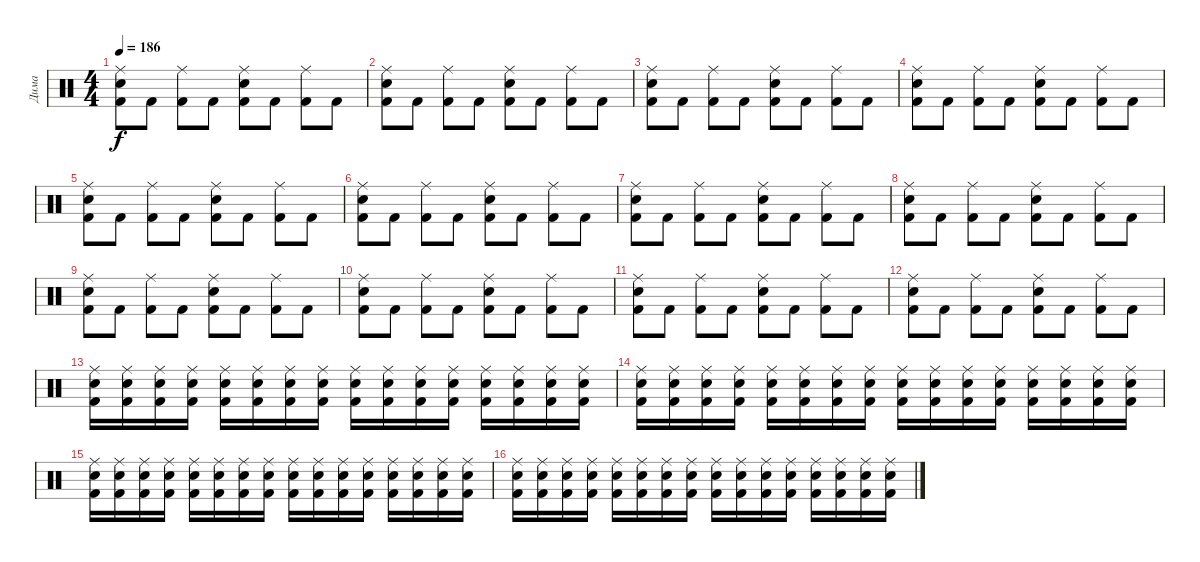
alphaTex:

\track ("Дима" "Дима") {instrument percussion}
\staff {score}
\articulation defaults
\ts (4 4)
\tempo 186
\clef neutral
\ks c
("Ride (middle)" "Snare (hit) 2" "Kick (hit) 2").8{dy f} "Kick (hit) 2".8 ("Ride (middle)" "Kick (hit) 2").8 "Kick (hit) 2".8 ("Ride (middle)" "Snare (hit) 2" "Kick (hit) 2").8 "Kick (hit) 2".8 ("Ride (middle)" "Kick (hit) 2").8 "Kick (hit) 2".8 |
("Ride (middle)" "Snare (hit) 2" "Kick (hit) 2").8 "Kick (hit) 2".8 ("Ride (middle)" "Kick (hit) 2").8 "Kick (hit) 2".8 ("Ride (middle)" "Snare (hit) 2" "Kick (hit) 2").8 "Kick (hit) 2".8 ("Ride (middle)" "Kick (hit) 2").8 "Kick (hit) 2".8 |
("Ride (middle)" "Snare (hit) 2" "Kick (hit) 2").8 "Kick (hit) 2".8 ("Ride (middle)" "Kick (hit) 2").8 "Kick (hit) 2".8 ("Ride (middle)" "Snare (hit) 2" "Kick (hit) 2").8 "Kick (hit) 2".8 ("Ride (middle)" "Kick (hit) 2").8 "Kick (hit) 2".8 |
("Ride (middle)" "Snare (hit) 2" "Kick (hit) 2").8 "Kick (hit) 2".8 ("Ride (middle)" "Kick (hit) 2").8 "Kick (hit) 2".8 ("Ride (middle)" "Snare (hit) 2" "Kick (hit) 2").8 "Kick (hit) 2".8 ("Ride (middle)" "Kick (hit) 2").8 "Kick (hit) 2".8 |
("Ride (middle)" "Snare (hit) 2" "Kick (hit) 2").8 "Kick (hit) 2".8 ("Ride (middle)" "Kick (hit) 2").8 "Kick (hit) 2".8 ("Ride (middle)" "Snare (hit) 2" "Kick (hit) 2").8 "Kick (hit) 2".8 ("Ride (middle)" "Kick (hit) 2").8 "Kick (hit) 2".8 |
("Ride (middle)" "Snare (hit) 2" "Kick (hit) 2").8 "Kick (hit) 2".8 ("Ride (middle)" "Kick (hit) 2").8 "Kick (hit) 2".8 ("Ride (middle)" "Snare (hit) 2" "Kick (hit) 2").8 "Kick (hit) 2".8 ("Ride (middle)" "Kick (hit) 2").8 "Kick (hit) 2".8 |
("Ride (middle)" "Snare (hit) 2" "Kick (hit) 2").8 "Kick (hit) 2".8 ("Ride (middle)" "Kick (hit) 2").8 "Kick (hit) 2".8 ("Ride (middle)" "Snare (hit) 2" "Kick (hit) 2").8 "Kick (hit) 2".8 ("Ride (middle)" "Kick (hit) 2").8 "Kick (hit) 2".8 |
("Ride (middle)" "Snare (hit) 2" "Kick (hit) 2").8 "Kick (hit) 2".8 ("Ride (middle)" "Kick (hit) 2").8 "Kick (hit) 2".8 ("Ride (middle)" "Snare (hit) 2" "Kick (hit) 2").8 "Kick (hit) 2".8 ("Ride (middle)" "Kick (hit) 2").8 "Kick (hit) 2".8 |
("Ride (middle)" "Snare (hit) 2" "Kick (hit) 2").8 "Kick (hit) 2".8 ("Ride (middle)" "Kick (hit) 2").8 "Kick (hit) 2".8 ("Ride (middle)" "Snare (hit) 2" "Kick (hit) 2").8 "Kick (hit) 2".8 ("Ride (middle)" "Kick (hit) 2").8 "Kick (hit) 2".8 |
("Ride (middle)" "Snare (hit) 2" "Kick (hit) 2").8 "Kick (hit) 2".8 ("Ride (middle)" "Kick (hit) 2").8 "Kick (hit) 2".8 ("Ride (middle)" "Snare (hit) 2" "Kick (hit) 2").8 "Kick (hit) 2".8 ("Ride (middle)" "Kick (hit) 2").8 "Kick (hit) 2".8 |
("Ride (middle)" "Snare (hit) 2" "Kick (hit) 2").8 "Kick (hit) 2".8 ("Ride (middle)" "Kick (hit) 2").8 "Kick (hit) 2".8 ("Ride (middle)" "Snare (hit) 2" "Kick (hit) 2").8 "Kick (hit) 2".8 ("Ride (middle)" "Kick (hit) 2").8 "Kick (hit) 2".8 |
("Ride (middle)" "Snare (hit) 2" "Kick (hit) 2").8 "Kick (hit) 2".8 ("Ride (middle)" "Kick (hit) 2").8 "Kick (hit) 2".8 ("Ride (middle)" "Snare (hit) 2" "Kick (hit) 2").8 "Kick (hit) 2".8 ("Ride (middle)" "Kick (hit) 2").8 "Kick (hit) 2".8 |
("Kick (hit) 2" "Ride (middle)" "Snare (hit) 2").16 ("Kick (hit) 2" "Ride (middle)" "Snare (hit) 2").16 ("Kick (hit) 2" "Ride (middle)" "Snare (hit) 2").16 ("Kick (hit) 2" "Ride (middle)" "Snare (hit) 2").16 ("Kick (hit) 2" "Ride (middle)" "Snare (hit) 2").16 ("Kick (hit) 2" "Ride (middle)" "Snare (hit) 2").16 ("Kick (hit) 2" "Ride (middle)" "Snare (hit) 2").16 ("Kick (hit) 2" "Ride (middle)" "Snare (hit) 2").16 ("Kick (hit) 2" "Ride (middle)" "Snare (hit) 2").16 ("Kick (hit) 2" "Ride (middle)" "Snare (hit) 2").16 ("Kick (hit) 2" "Ride (middle)" "Snare (hit) 2").16 ("Kick (hit) 2" "Ride (middle)" "Snare (hit) 2").16 ("Kick (hit) 2" "Ride (middle)" "Snare (hit) 2").16 ("Kick (hit) 2" "Ride (middle)" "Snare (hit) 2").16 ("Kick (hit) 2" "Ride (middle)" "Snare (hit) 2").16 ("Kick (hit) 2" "Ride (middle)" "Snare (hit) 2").16 |
("Kick (hit) 2" "Ride (middle)" "Snare (hit) 2").16 ("Kick (hit) 2" "Ride (middle)" "Snare (hit) 2").16 ("Kick (hit) 2" "Ride (middle)" "Snare (hit) 2").16 ("Kick (hit) 2" "Ride (middle)" "Snare (hit) 2").16 ("Kick (hit) 2" "Ride (middle)" "Snare (hit) 2").16 ("Kick (hit) 2" "Ride (middle)" "Snare (hit) 2").16 ("Kick (hit) 2" "Ride (middle)" "Snare (hit) 2").16 ("Kick (hit) 2" "Ride (middle)" "Snare (hit) 2").16 ("Kick (hit) 2" "Ride (middle)" "Snare (hit) 2").16 ("Kick (hit) 2" "Ride (middle)" "Snare (hit) 2").16 ("Kick (hit) 2" "Ride (middle)" "Snare (hit) 2").16 ("Kick (hit) 2" "Ride (middle)" "Snare (hit) 2").16 ("Kick (hit) 2" "Ride (middle)" "Snare (hit) 2").16 ("Kick (hit) 2" "Ride (middle)" "Snare (hit) 2").16 ("Kick (hit) 2" "Ride (middle)" "Snare (hit) 2").16 ("Kick (hit) 2" "Ride (middle)" "Snare (hit) 2").16 |
("Kick (hit) 2" "Ride (middle)" "Snare (hit) 2").16 ("Kick (hit) 2" "Ride (middle)" "Snare (hit) 2").16 ("Kick (hit) 2" "Ride (middle)" "Snare (hit) 2").16 ("Kick (hit) 2" "Ride (middle)" "Snare (hit) 2").16 ("Kick (hit) 2" "Ride (middle)" "Snare (hit) 2").16 ("Kick (hit) 2" "Ride (middle)" "Snare (hit) 2").16 ("Kick (hit) 2" "Ride (middle)" "Snare (hit) 2").16 ("Kick (hit) 2" "Ride (middle)" "Snare (hit) 2").16 ("Kick (hit) 2" "Ride (middle)" "Snare (hit) 2").16 ("Kick (hit) 2" "Ride (middle)" "Snare (hit) 2").16 ("Kick (hit) 2" "Ride (middle)" "Snare (hit) 2").16 ("Kick (hit) 2" "Ride (middle)" "Snare (hit) 2").16 ("Kick (hit) 2" "Ride (middle)" "Snare (hit) 2").16 ("Kick (hit) 2" "Ride (middle)" "Snare (hit) 2").16 ("Kick (hit) 2" "Ride (middle)" "Snare (hit) 2").16 ("Kick (hit) 2" "Ride (middle)" "Snare (hit) 2").16 |
("Kick (hit) 2" "Ride (middle)" "Snare (hit) 2").16 ("Kick (hit) 2" "Ride (middle)" "Snare (hit) 2").16 ("Kick (hit) 2" "Ride (middle)" "Snare (hit) 2").16 ("Kick (hit) 2" "Ride (middle)" "Snare (hit) 2").16 ("Kick (hit) 2" "Ride (middle)" "Snare (hit) 2").16 ("Kick (hit) 2" "Ride (middle)" "Snare (hit) 2").16 ("Kick (hit) 2" "Ride (middle)" "Snare (hit) 2").16 ("Kick (hit) 2" "Ride (middle)" "Snare (hit) 2").16 ("Kick (hit) 2" "Ride (middle)" "Snare (hit) 2").16 ("Kick (hit) 2" "Ride (middle)" "Snare (hit) 2").16 ("Kick (hit) 2" "Ride (middle)" "Snare (hit) 2").16 ("Kick (hit) 2" "Ride (middle)" "Snare (hit) 2").16 ("Kick (hit) 2" "Ride (middle)" "Snare (hit) 2").16 ("Kick (hit) 2" "Ride (middle)" "Snare (hit) 2").16 ("Kick (hit) 2" "Ride (middle)" "Snare (hit) 2").16 ("Kick (hit) 2" "Ride (middle)" "Snare (hit) 2").16
